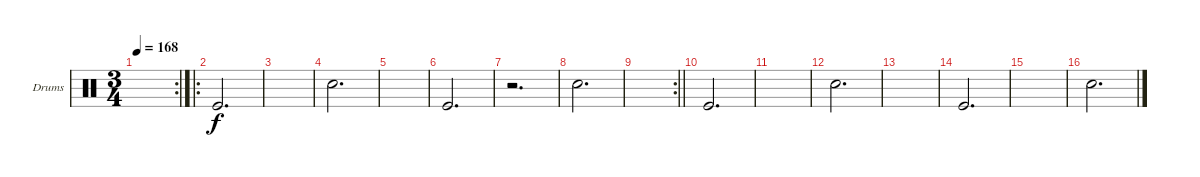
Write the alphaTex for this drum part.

\defaultSystemsLayout 4
\bracketExtendMode groupsimilarinstruments
\firstSystemTrackNameOrientation horizontal
\otherSystemsTrackNameOrientation horizontal
\track ("Drumkit" "Drums") {instrument percussion}
\staff {score}
\articulation defaults
\rc 2
\ts (3 4)
\tempo 168
\clef neutral
\scale
0.356322
\ks c
|
\ro
\scale
0.377778 "Kick (hit)".2{d} |
\scale
0.311111 |
\scale
0.311111 "Snare (hit) 2".2{d} |
\scale
0.333333 |
\scale
0.333333 "Kick (hit)".2{d} |
\scale
0.333333 r.2{d} |
"Snare (hit) 2".2{d} |
\rc 2
\barLineRight lightlight
|
"Kick (hit)".2{d} |
|
"Snare (hit) 2".2{d} |
|
"Kick (hit)".2{d} |
|
"Snare (hit) 2".2{d}
